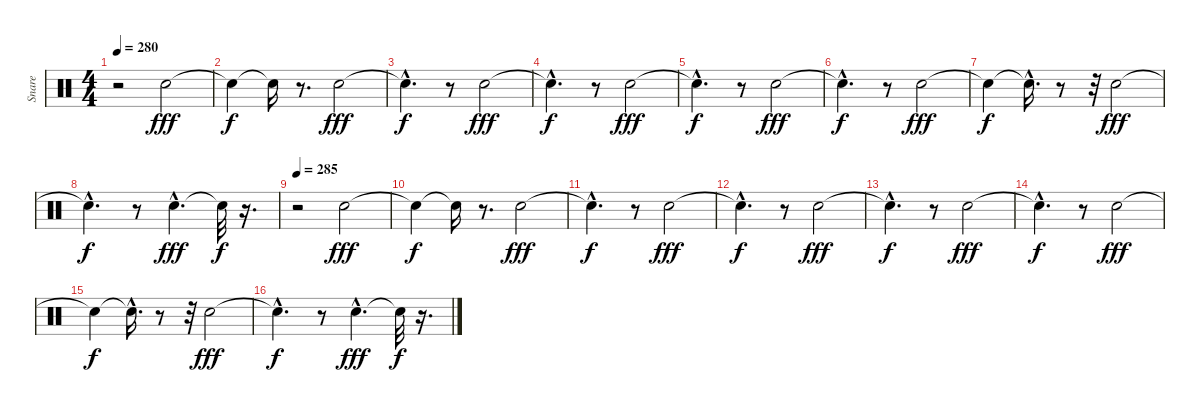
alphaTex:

\track ("Snare" "Snare") {instrument percussion}
\staff {score}
\articulation defaults
\ts (4 4)
\tempo 280
\clef neutral
\ks c
r.2{dy f} "Electric Snare (hit)".2{dy fff} |
"Snare (hit)"{t}.4{dy f} "Snare (hit)"{t}.16 r.8{d} "Electric Snare (hit)".2{dy fff} |
"Snare (hit)"{hac t}.4{d dy f} r.8 "Electric Snare (hit)".2{dy fff} |
"Snare (hit)"{hac t}.4{d dy f} r.8 "Electric Snare (hit)".2{dy fff} |
"Snare (hit)"{hac t}.4{d dy f} r.8 "Electric Snare (hit)".2{dy fff} |
"Snare (hit)"{hac t}.4{d dy f} r.8 "Electric Snare (hit)".2{dy fff} |
"Snare (hit)"{t}.4{dy f} "Snare (hit)"{hac t}.16{d} r.8 r.32 "Electric Snare (hit)".2{dy fff} |
"Snare (hit)"{hac t}.4{d dy f} r.8 "Electric Snare (hit)"{hac}.4{d dy fff} "Snare (hit)"{t}.32{dy f} r.16{d} |
\tempo 285
r.2 "Electric Snare (hit)".2{dy fff} |
"Snare (hit)"{t}.4{dy f} "Snare (hit)"{t}.16 r.8{d} "Electric Snare (hit)".2{dy fff} |
"Snare (hit)"{hac t}.4{d dy f} r.8 "Electric Snare (hit)".2{dy fff} |
"Snare (hit)"{hac t}.4{d dy f} r.8 "Electric Snare (hit)".2{dy fff} |
"Snare (hit)"{hac t}.4{d dy f} r.8 "Electric Snare (hit)".2{dy fff} |
"Snare (hit)"{hac t}.4{d dy f} r.8 "Electric Snare (hit)".2{dy fff} |
"Snare (hit)"{t}.4{dy f} "Snare (hit)"{hac t}.16{d} r.8 r.32 "Electric Snare (hit)".2{dy fff} |
"Snare (hit)"{hac t}.4{d dy f} r.8 "Electric Snare (hit)"{hac}.4{d dy fff} "Snare (hit)"{t}.32{dy f} r.16{d}
